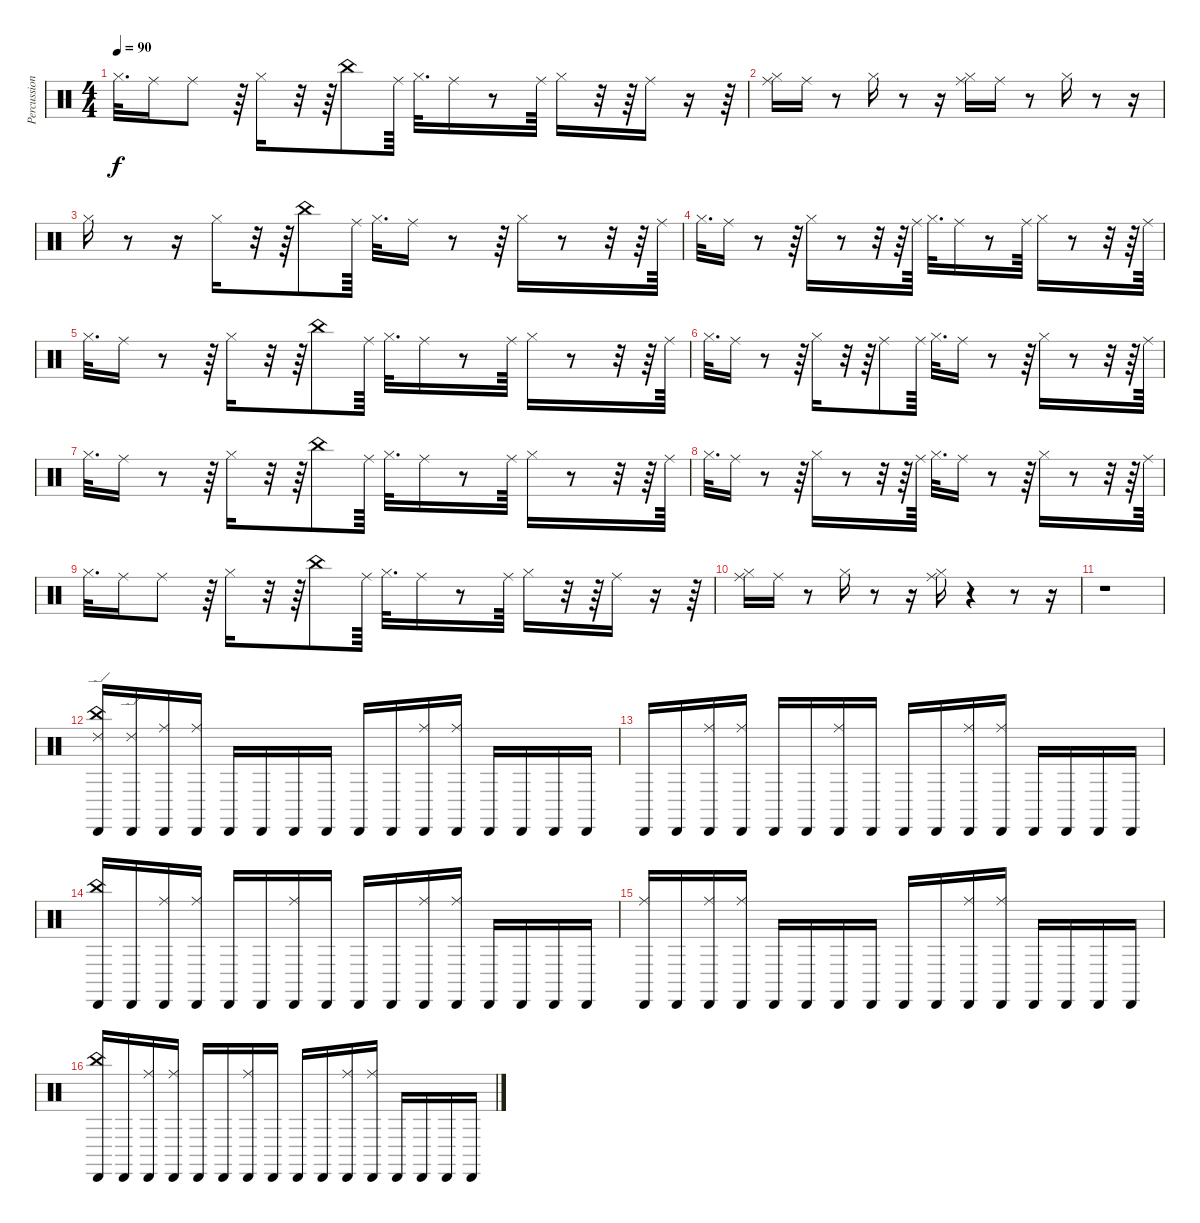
\track ("Percussions by Marc Lavoo" "Percussion") {instrument percussion}
\staff {score}
\articulation defaults
\ts (4 4)
\tempo 90
\clef neutral
\ks c "Hi-Hat (closed)".32{d dy f} "Ride (middle)".16 "Ride (middle)".8
r.64 "Hi-Hat (closed)".16 r.32 r.64 "China (hit)".8 "Ride (middle)".64 "Hi-Hat (closed)".32{d} "Ride (middle)".16 r.8 "Ride (middle)".64 "Hi-Hat (closed)".16 r.32 r.64 "Ride (middle)".16 r.16 r.64 |
("Hi-Hat (closed)" "Ride (middle)").16 "Ride (middle)".16 r.8 "Hi-Hat (closed)".16 r.8 r.16 ("Hi-Hat (closed)" "Ride (middle)").16 "Ride (middle)".16 r.8 "Hi-Hat (closed)".16 r.8 r.16 |
"Hi-Hat (closed)".16 r.8 r.16 "Hi-Hat (closed)".16 r.32 r.64 "China (hit)".8 "Ride (middle)".64 "Hi-Hat (closed)".32{d} "Ride (middle)".16 r.8 r.64 "Hi-Hat (closed)".16 r.8 r.32 r.64 "Ride (middle)".64 |
"Hi-Hat (closed)".32{d} "Ride (middle)".16 r.8 r.64 "Hi-Hat (closed)".16 r.8 r.32 r.64 "Ride (middle)".64 "Hi-Hat (closed)".32{d} "Ride (middle)".16 r.8 "Ride (middle)".64 "Hi-Hat (closed)".16 r.8 r.32 r.64 "Ride (middle)".64 |
"Hi-Hat (closed)".32{d} "Ride (middle)".16 r.8 r.64 "Hi-Hat (closed)".16 r.32 r.64 "China (hit)".8 "Ride (middle)".64 "Hi-Hat (closed)".32{d} "Ride (middle)".16 r.8 "Ride (middle)".64 "Hi-Hat (closed)".16 r.8 r.32 r.64 "Ride (middle)".64 |
"Hi-Hat (closed)".32{d} "Ride (middle)".16 r.8 r.64 "Hi-Hat (closed)".16 r.32 r.64 "Ride (middle)".8 "Ride (middle)".64 "Hi-Hat (closed)".32{d} "Ride (middle)".16 r.8 r.64 "Hi-Hat (closed)".16 r.8 r.32 r.64 "Ride (middle)".64 |
"Hi-Hat (closed)".32{d} "Ride (middle)".16 r.8 r.64 "Hi-Hat (closed)".16 r.32 r.64 "China (hit)".8 "Ride (middle)".64 "Hi-Hat (closed)".32{d} "Ride (middle)".16 r.8 "Ride (middle)".64 "Hi-Hat (closed)".16 r.8 r.32 r.64 "Ride (middle)".64 |
"Hi-Hat (closed)".32{d} "Ride (middle)".16 r.8 r.64 "Hi-Hat (closed)".16 r.8 r.32 r.64 "Ride (middle)".64 "Hi-Hat (closed)".32{d} "Ride (middle)".16 r.8 r.64 "Hi-Hat (closed)".16 r.8 r.32 r.64 "Ride (middle)".64 |
"Hi-Hat (closed)".32{d} "Ride (middle)".16 "Ride (middle)".8 r.64 "Hi-Hat (closed)".16 r.32 r.64 "China (hit)".8 "Ride (middle)".64 "Hi-Hat (closed)".32{d} "Ride (middle)".16 r.8 "Ride (middle)".64 "Hi-Hat (closed)".16 r.32 r.64 "Ride (middle)".16 r.16 r.64 |
("Hi-Hat (closed)" "Ride (middle)").16 "Ride (middle)".16 r.8 "Hi-Hat (closed)".16 r.8 r.16 ("Hi-Hat (closed)" "Ride (middle)").16 r.4 r.8 r.16 |
r.1 |
("Cabasa (hit)" "China (hit)" "Ride (edge) 2").16 ("Cabasa (hit)" "Ride (edge) 2").16 ("Cabasa (hit)" "Ride (middle)").16 ("Cabasa (hit)" "Ride (middle)").16 "Cabasa (hit)".16 "Cabasa (hit)".16 "Cabasa (hit)".16 "Cabasa (hit)".16 "Cabasa (hit)".16 "Cabasa (hit)".16 ("Cabasa (hit)" "Ride (middle)").16 ("Cabasa (hit)" "Ride (middle)").16 "Cabasa (hit)".16 "Cabasa (hit)".16 "Cabasa (hit)".16 "Cabasa (hit)".16 |
"Cabasa (hit)".16 "Cabasa (hit)".16 ("Cabasa (hit)" "Ride (middle)").16 ("Cabasa (hit)" "Ride (middle)").16 "Cabasa (hit)".16 "Cabasa (hit)".16 ("Cabasa (hit)" "Ride (middle)").16 "Cabasa (hit)".16 "Cabasa (hit)".16 "Cabasa (hit)".16 ("Cabasa (hit)" "Ride (middle)").16 ("Cabasa (hit)" "Ride (middle)").16 "Cabasa (hit)".16 "Cabasa (hit)".16 "Cabasa (hit)".16 "Cabasa (hit)".16 |
("Cabasa (hit)" "China (hit)").16 "Cabasa (hit)".16 ("Cabasa (hit)" "Ride (middle)").16 ("Cabasa (hit)" "Ride (middle)").16 "Cabasa (hit)".16 "Cabasa (hit)".16 ("Cabasa (hit)" "Ride (middle)").16 "Cabasa (hit)".16 "Cabasa (hit)".16 "Cabasa (hit)".16 ("Cabasa (hit)" "Ride (middle)").16 ("Cabasa (hit)" "Ride (middle)").16 "Cabasa (hit)".16 "Cabasa (hit)".16 "Cabasa (hit)".16 "Cabasa (hit)".16 |
("Cabasa (hit)" "Ride (middle)").16 "Cabasa (hit)".16 ("Cabasa (hit)" "Ride (middle)").16 ("Cabasa (hit)" "Ride (middle)").16 "Cabasa (hit)".16 "Cabasa (hit)".16 "Cabasa (hit)".16 "Cabasa (hit)".16 "Cabasa (hit)".16 "Cabasa (hit)".16 ("Cabasa (hit)" "Ride (middle)").16 ("Cabasa (hit)" "Ride (middle)").16 "Cabasa (hit)".16 "Cabasa (hit)".16 "Cabasa (hit)".16 "Cabasa (hit)".16 |
("Cabasa (hit)" "China (hit)").16 "Cabasa (hit)".16 ("Cabasa (hit)" "Ride (middle)").16 ("Cabasa (hit)" "Ride (middle)").16 "Cabasa (hit)".16 "Cabasa (hit)".16 ("Cabasa (hit)" "Ride (middle)").16 "Cabasa (hit)".16 "Cabasa (hit)".16 "Cabasa (hit)".16 ("Cabasa (hit)" "Ride (middle)").16 ("Cabasa (hit)" "Ride (middle)").16 "Cabasa (hit)".16 "Cabasa (hit)".16 "Cabasa (hit)".16 "Cabasa (hit)".16
